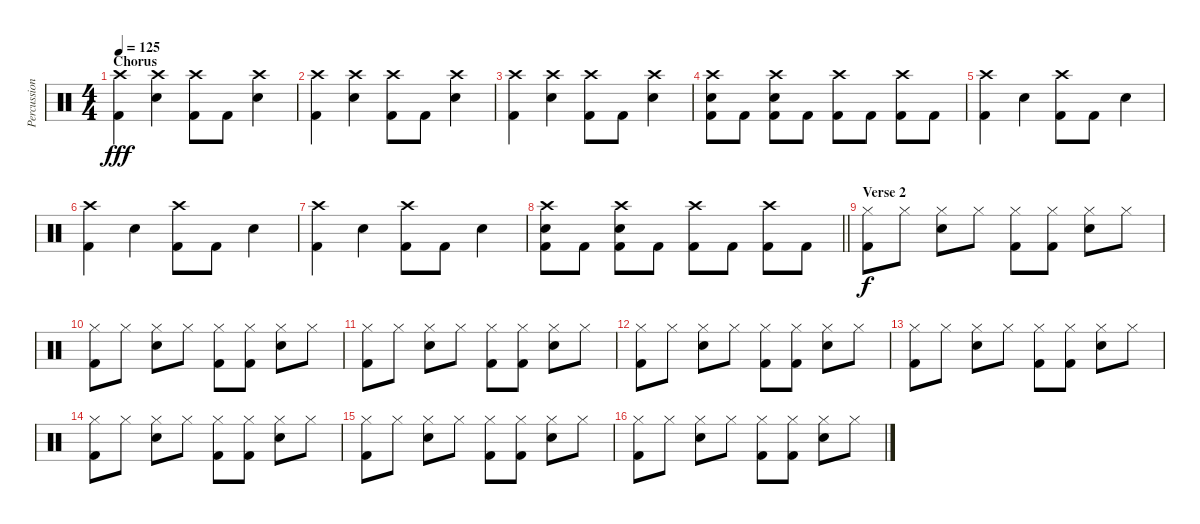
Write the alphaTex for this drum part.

\track ("Percussion" "Percussion") {instrument percussion}
\staff {score}
\articulation defaults
\ts (4 4)
\section ("" "Chorus")
\tempo 125
\clef neutral
\ks c
("Crash high (hit)" "Kick (hit) 2").4{dy fff} ("Crash high (hit)" "Electric Snare (hit)").4 ("Crash high (hit)" "Kick (hit) 2").8 "Kick (hit) 2".8 ("Crash high (hit)" "Electric Snare (hit)").4 |
("Crash high (hit)" "Kick (hit) 2").4 ("Crash high (hit)" "Electric Snare (hit)").4 ("Crash high (hit)" "Kick (hit) 2").8 "Kick (hit) 2".8 ("Crash high (hit)" "Electric Snare (hit)").4 |
("Crash high (hit)" "Kick (hit) 2").4 ("Crash high (hit)" "Electric Snare (hit)").4 ("Crash high (hit)" "Kick (hit) 2").8 "Kick (hit) 2".8 ("Crash high (hit)" "Electric Snare (hit)").4 |
("Crash high (hit)" "Electric Snare (hit)" "Kick (hit) 2").8 "Kick (hit) 2".8 ("Crash high (hit)" "Electric Snare (hit)" "Kick (hit) 2").8 "Kick (hit) 2".8 ("Crash high (hit)" "Kick (hit) 2").8 "Kick (hit) 2".8 ("Crash high (hit)" "Kick (hit) 2").8 "Kick (hit) 2".8 |
("Crash high (hit)" "Kick (hit) 2").4 "Electric Snare (hit)".4 ("Crash high (hit)" "Kick (hit) 2").8 "Kick (hit) 2".8 "Electric Snare (hit)".4 |
("Crash high (hit)" "Kick (hit) 2").4 "Electric Snare (hit)".4 ("Crash high (hit)" "Kick (hit) 2").8 "Kick (hit) 2".8 "Electric Snare (hit)".4 |
("Crash high (hit)" "Kick (hit) 2").4 "Electric Snare (hit)".4 ("Crash high (hit)" "Kick (hit) 2").8 "Kick (hit) 2".8 "Electric Snare (hit)".4 |
\barLineRight lightlight
("Crash high (hit)" "Electric Snare (hit)" "Kick (hit) 2").8 "Kick (hit) 2".8 ("Crash high (hit)" "Electric Snare (hit)" "Kick (hit) 2").8 "Kick (hit) 2".8 ("Crash high (hit)" "Kick (hit) 2").8 "Kick (hit) 2".8 ("Crash high (hit)" "Kick (hit) 2").8 "Kick (hit) 2".8 |
\section ("" "Verse 2")
("Hi-Hat (closed)" "Kick (hit) 2").8{dy f} "Hi-Hat (closed)".8 ("Hi-Hat (closed)" "Electric Snare (hit)").8 "Hi-Hat (closed)".8 ("Hi-Hat (closed)" "Kick (hit) 2").8 ("Hi-Hat (closed)" "Kick (hit) 2").8 ("Hi-Hat (closed)" "Electric Snare (hit)").8 "Hi-Hat (closed)".8 |
("Hi-Hat (closed)" "Kick (hit) 2").8 "Hi-Hat (closed)".8 ("Hi-Hat (closed)" "Electric Snare (hit)").8 "Hi-Hat (closed)".8 ("Hi-Hat (closed)" "Kick (hit) 2").8 ("Hi-Hat (closed)" "Kick (hit) 2").8 ("Hi-Hat (closed)" "Electric Snare (hit)").8 "Hi-Hat (closed)".8 |
("Hi-Hat (closed)" "Kick (hit) 2").8 "Hi-Hat (closed)".8 ("Hi-Hat (closed)" "Electric Snare (hit)").8 "Hi-Hat (closed)".8 ("Hi-Hat (closed)" "Kick (hit) 2").8 ("Hi-Hat (closed)" "Kick (hit) 2").8 ("Hi-Hat (closed)" "Electric Snare (hit)").8 "Hi-Hat (closed)".8 |
("Hi-Hat (closed)" "Kick (hit) 2").8 "Hi-Hat (closed)".8 ("Hi-Hat (closed)" "Electric Snare (hit)").8 "Hi-Hat (closed)".8 ("Hi-Hat (closed)" "Kick (hit) 2").8 ("Hi-Hat (closed)" "Kick (hit) 2").8 ("Hi-Hat (closed)" "Electric Snare (hit)").8 "Hi-Hat (closed)".8 |
("Hi-Hat (closed)" "Kick (hit) 2").8 "Hi-Hat (closed)".8 ("Hi-Hat (closed)" "Electric Snare (hit)").8 "Hi-Hat (closed)".8 ("Hi-Hat (closed)" "Kick (hit) 2").8 ("Hi-Hat (closed)" "Kick (hit) 2").8 ("Hi-Hat (closed)" "Electric Snare (hit)").8 "Hi-Hat (closed)".8 |
("Hi-Hat (closed)" "Kick (hit) 2").8 "Hi-Hat (closed)".8 ("Hi-Hat (closed)" "Electric Snare (hit)").8 "Hi-Hat (closed)".8 ("Hi-Hat (closed)" "Kick (hit) 2").8 ("Hi-Hat (closed)" "Kick (hit) 2").8 ("Hi-Hat (closed)" "Electric Snare (hit)").8 "Hi-Hat (closed)".8 |
("Hi-Hat (closed)" "Kick (hit) 2").8 "Hi-Hat (closed)".8 ("Hi-Hat (closed)" "Electric Snare (hit)").8 "Hi-Hat (closed)".8 ("Hi-Hat (closed)" "Kick (hit) 2").8 ("Hi-Hat (closed)" "Kick (hit) 2").8 ("Hi-Hat (closed)" "Electric Snare (hit)").8 "Hi-Hat (closed)".8 |
("Hi-Hat (closed)" "Kick (hit) 2").8 "Hi-Hat (closed)".8 ("Hi-Hat (closed)" "Electric Snare (hit)").8 "Hi-Hat (closed)".8 ("Hi-Hat (closed)" "Kick (hit) 2").8 ("Hi-Hat (closed)" "Kick (hit) 2").8 ("Hi-Hat (closed)" "Electric Snare (hit)").8 "Hi-Hat (closed)".8
